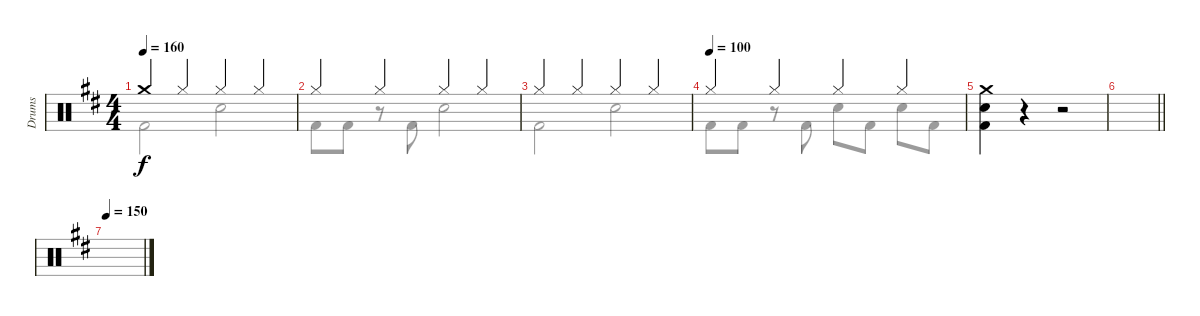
\track ("Drums" "Drums") {instrument percussion}
\staff {score}
\articulation defaults
\voice
\ts (4 4)
\tempo 160
\clef neutral
\ks d "Crash medium (hit)".4{dy f} "Hi-Hat (closed)".4 "Hi-Hat (closed)".4 "Hi-Hat (closed)".4
|
"Hi-Hat (closed)".4 "Hi-Hat (closed)".4 "Hi-Hat (closed)".4 "Hi-Hat (closed)".4 |
"Hi-Hat (closed)".4 "Hi-Hat (closed)".4 "Hi-Hat (closed)".4 "Hi-Hat (closed)".4 |
\tempo (100)
"Hi-Hat (closed)".4 "Hi-Hat (closed)".4 "Hi-Hat (closed)".4 "Hi-Hat (closed)".4 |
("Snare (hit) 2" "Crash medium (hit)" "Kick (hit) 2").4 r.4 r.2 |
\barLineRight lightlight
|
\tempo 150
|
|
|
|
|
|
|
|
|
\voice
\clef neutral
\ottava regular
\simile none
\ks d "Kick (hit) 2".2{dy f} "Snare (hit) 2".2
|
"Kick (hit) 2".8 "Kick (hit) 2".8 r.8 "Kick (hit) 2".8 "Snare (hit) 2".2 |
"Kick (hit) 2".2 "Snare (hit) 2".2 |
"Kick (hit) 2".8 "Kick (hit) 2".8 r.8 "Kick (hit) 2".8 "Snare (hit) 2".8 "Kick (hit) 2".8 "Snare (hit) 2".8 "Kick (hit) 2".8 |
|
\barLineRight lightlight
|
|
|
|
|
|
|
|
|
|
